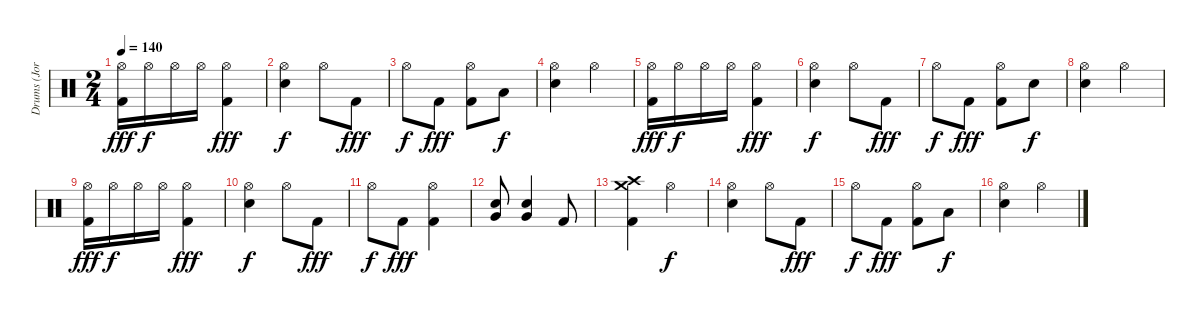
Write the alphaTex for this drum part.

\track ("Drums (Jordan Hastings)" "Drums (Jor") {instrument percussion}
\staff {score}
\articulation defaults
\ts (2 4)
\tempo 140
\clef neutral
\ks c
("Hi-Hat (open)" "Kick (hit) 2").16{dy fff} "Hi-Hat (open)".16{dy f} "Hi-Hat (open)".16 "Hi-Hat (open)".16 ("Hi-Hat (open)" "Kick (hit) 2").4{dy fff} |
("Hi-Hat (open)" "Electric Snare (hit)").4{dy f} "Hi-Hat (open)".8 "Kick (hit) 2".8{dy fff} |
"Hi-Hat (open)".8{dy f} "Kick (hit) 2".8{dy fff} ("Hi-Hat (open)" "Kick (hit) 2").8 "Low Tom (hit)".8{dy f} |
("Hi-Hat (open)" "Electric Snare (hit)").4 "Hi-Hat (open)".4 |
("Hi-Hat (open)" "Kick (hit) 2").16{dy fff} "Hi-Hat (open)".16{dy f} "Hi-Hat (open)".16 "Hi-Hat (open)".16 ("Hi-Hat (open)" "Kick (hit) 2").4{dy fff} |
("Hi-Hat (open)" "Electric Snare (hit)").4{dy f} "Hi-Hat (open)".8 "Kick (hit) 2".8{dy fff} |
"Hi-Hat (open)".8{dy f} "Kick (hit) 2".8{dy fff} ("Hi-Hat (open)" "Kick (hit) 2").8 "Electric Snare (hit)".8{dy f} |
("Hi-Hat (open)" "Electric Snare (hit)").4 "Hi-Hat (open)".4 |
("Hi-Hat (open)" "Kick (hit) 2").16{dy fff} "Hi-Hat (open)".16{dy f} "Hi-Hat (open)".16 "Hi-Hat (open)".16 ("Hi-Hat (open)" "Kick (hit) 2").4{dy fff} |
("Hi-Hat (open)" "Electric Snare (hit)").4{dy f} "Hi-Hat (open)".8 "Kick (hit) 2".8{dy fff} |
"Hi-Hat (open)".8{dy f} "Kick (hit) 2".8{dy fff} ("Hi-Hat (open)" "Kick (hit) 2").4 |
("Electric Snare (hit)" "Very Low Tom (hit)").8 ("Electric Snare (hit)" "Very Low Tom (hit)").4 "Kick (hit) 2".8 |
("Crash medium (hit)" "Crash high (hit)" "Kick (hit) 2").4 "Hi-Hat (open)".4{dy f} |
("Hi-Hat (open)" "Electric Snare (hit)").4 "Hi-Hat (open)".8 "Kick (hit) 2".8{dy fff} |
"Hi-Hat (open)".8{dy f} "Kick (hit) 2".8{dy fff} ("Hi-Hat (open)" "Kick (hit) 2").8 "Low Tom (hit)".8{dy f} |
("Hi-Hat (open)" "Electric Snare (hit)").4 "Hi-Hat (open)".4
